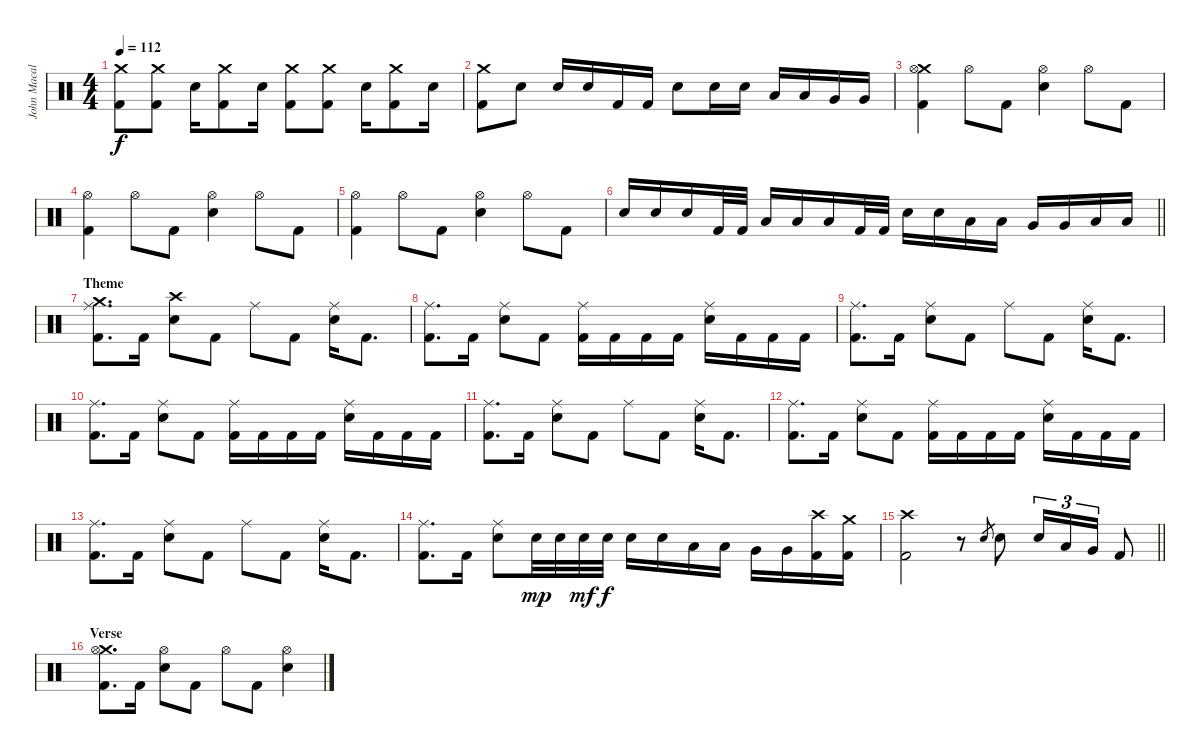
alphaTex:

\track ("John Macaluso" "John Macal") {instrument percussion}
\staff {score}
\articulation defaults
\ts (4 4)
\tempo 112
\clef neutral
\ks c
("Crash medium (hit)" "Kick (hit) 2").8{dy f} ("Crash medium (hit)" "Kick (hit) 2").8 "Snare (hit) 2".16 ("Crash medium (hit)" "Kick (hit) 2").8 "Snare (hit) 2".16 ("Crash medium (hit)" "Kick (hit) 2").8 ("Crash medium (hit)" "Kick (hit) 2").8 "Snare (hit) 2".16 ("Crash medium (hit)" "Kick (hit) 2").8 "Snare (hit) 2".16 |
("Crash medium (hit)" "Kick (hit) 2").8 "Snare (hit) 2".8 "Snare (hit) 2".16 "Snare (hit) 2".16 "Kick (hit) 2".16 "Kick (hit) 2".16 "Snare (hit) 2".8 "Snare (hit) 2".16 "Snare (hit) 2".16 "Low Tom (hit)".16 "Low Tom (hit)".16 "Very Low Tom (hit)".16 "Very Low Tom (hit)".16 |
("Crash medium (hit)" "Hi-Hat (open)" "Kick (hit) 2").4 "Hi-Hat (open)".8 "Kick (hit) 2".8 ("Hi-Hat (open)" "Snare (hit) 2").4 "Hi-Hat (open)".8 "Kick (hit) 2".8 |
("Hi-Hat (open)" "Kick (hit) 2").4 "Hi-Hat (open)".8 "Kick (hit) 2".8 ("Hi-Hat (open)" "Snare (hit) 2").4 "Hi-Hat (open)".8 "Kick (hit) 2".8 |
("Hi-Hat (open)" "Kick (hit) 2").4 "Hi-Hat (open)".8 "Kick (hit) 2".8 ("Hi-Hat (open)" "Snare (hit) 2").4 "Hi-Hat (open)".8 "Kick (hit) 2".8 |
\barLineRight lightlight "Snare (hit) 2".16 "Snare (hit) 2".16 "Snare (hit) 2".16 "Kick (hit) 2".32 "Kick (hit) 2".32 "Low Tom (hit)".16 "Low Tom (hit)".16 "Low Tom (hit)".16 "Kick (hit) 2".32 "Kick (hit) 2".32 "Snare (hit) 2".16 "Snare (hit) 2".16 "Low Tom (hit)".16 "Low Tom (hit)".16 "Very Low Tom (hit)".16 "Very Low Tom (hit)".16 "Low Floor Tom (hit)".16 "Low Floor Tom (hit)".16
|
\section ("" "Theme")
("Crash medium (hit)" "Ride (middle)" "Kick (hit) 2").8{d} "Kick (hit) 2".16 ("Crash high (hit)" "Snare (hit) 2").8 "Kick (hit) 2".8 "Ride (middle)".8 "Kick (hit) 2".8 ("Ride (middle)" "Snare (hit) 2").16 "Kick (hit) 2".8{d} |
("Ride (middle)" "Kick (hit) 2").8{d} "Kick (hit) 2".16 ("Ride (middle)" "Snare (hit) 2").8 "Kick (hit) 2".8 ("Ride (middle)" "Kick (hit) 2").16 "Kick (hit) 2".16 "Kick (hit) 2".16 "Kick (hit) 2".16 ("Ride (middle)" "Snare (hit) 2").16 "Kick (hit) 2".16 "Kick (hit) 2".16 "Kick (hit) 2".16 |
("Ride (middle)" "Kick (hit) 2").8{d} "Kick (hit) 2".16 ("Ride (middle)" "Snare (hit) 2").8 "Kick (hit) 2".8 "Ride (middle)".8 "Kick (hit) 2".8 ("Ride (middle)" "Snare (hit) 2").16 "Kick (hit) 2".8{d} |
("Ride (middle)" "Kick (hit) 2").8{d} "Kick (hit) 2".16 ("Ride (middle)" "Snare (hit) 2").8 "Kick (hit) 2".8 ("Ride (middle)" "Kick (hit) 2").16 "Kick (hit) 2".16 "Kick (hit) 2".16 "Kick (hit) 2".16 ("Ride (middle)" "Snare (hit) 2").16 "Kick (hit) 2".16 "Kick (hit) 2".16 "Kick (hit) 2".16 |
("Ride (middle)" "Kick (hit) 2").8{d} "Kick (hit) 2".16 ("Ride (middle)" "Snare (hit) 2").8 "Kick (hit) 2".8 "Ride (middle)".8 "Kick (hit) 2".8 ("Ride (middle)" "Snare (hit) 2").16 "Kick (hit) 2".8{d} |
("Ride (middle)" "Kick (hit) 2").8{d} "Kick (hit) 2".16 ("Ride (middle)" "Snare (hit) 2").8 "Kick (hit) 2".8 ("Ride (middle)" "Kick (hit) 2").16 "Kick (hit) 2".16 "Kick (hit) 2".16 "Kick (hit) 2".16 ("Ride (middle)" "Snare (hit) 2").16 "Kick (hit) 2".16 "Kick (hit) 2".16 "Kick (hit) 2".16 |
("Ride (middle)" "Kick (hit) 2").8{d} "Kick (hit) 2".16 ("Ride (middle)" "Snare (hit) 2").8 "Kick (hit) 2".8 "Ride (middle)".8 "Kick (hit) 2".8 ("Ride (middle)" "Snare (hit) 2").16 "Kick (hit) 2".8{d} |
("Ride (middle)" "Kick (hit) 2").8{d} "Kick (hit) 2".16 ("Ride (middle)" "Snare (hit) 2").8 "Snare (hit) 2".32{dy mp} "Snare (hit) 2".32 "Snare (hit) 2".32{dy mf} "Snare (hit) 2".32{dy f} "Snare (hit) 2".16 "Snare (hit) 2".16 "Low Tom (hit)".16 "Low Tom (hit)".16 "Very Low Tom (hit)".16 "Very Low Tom (hit)".16 ("Crash high (hit)" "Kick (hit) 2").16 ("Crash medium (hit)" "Kick (hit) 2").16 |
\barLineRight lightlight
("Crash high (hit)" "Kick (hit) 2").2 r.8 "Snare (hit) 2".8{gr} "Snare (hit) 2".8 "Snare (hit) 2".16{tu (3 2)} "Low Tom (hit)".16{tu (3 2)} "Very Low Tom (hit)".16{tu (3 2)} "Kick (hit) 2".8 |
\section ("" "Verse")
("Crash medium (hit)" "Hi-Hat (open)" "Kick (hit) 2").8{d} "Kick (hit) 2".16 ("Hi-Hat (open)" "Snare (hit) 2").8 "Kick (hit) 2".8 "Hi-Hat (open)".8 "Kick (hit) 2".8 ("Hi-Hat (open)" "Snare (hit) 2").4
